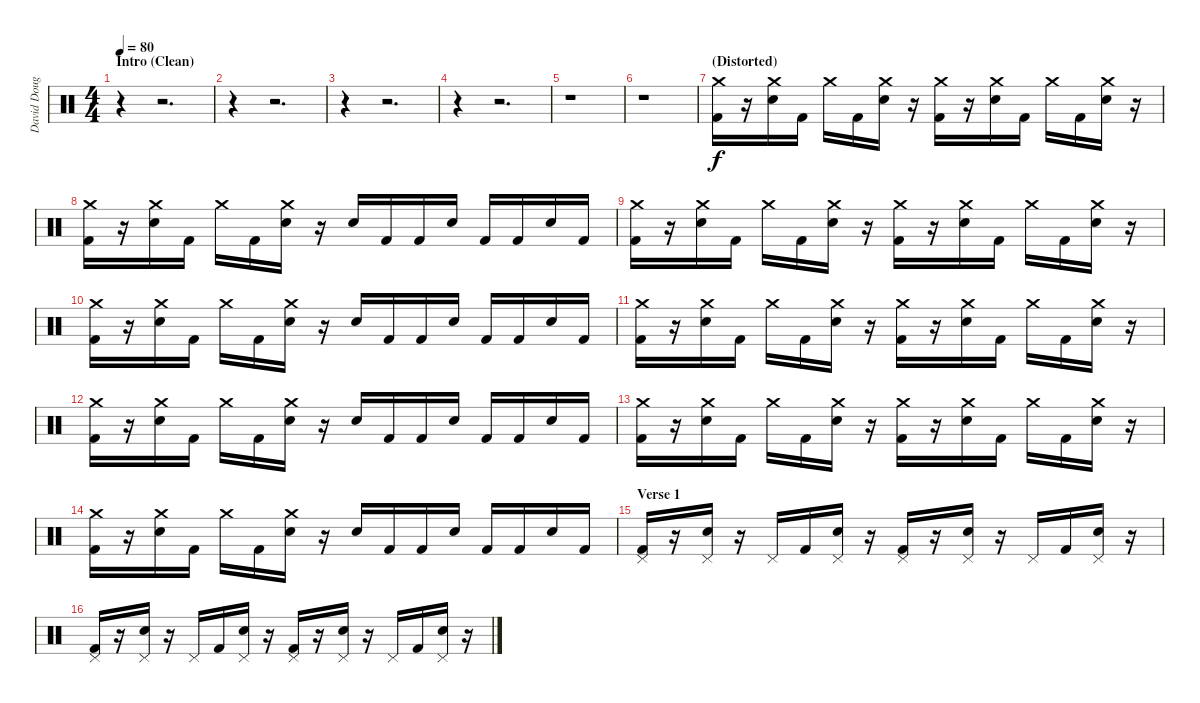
\track ("David Douglas" "David Doug") {instrument percussion}
\staff {score}
\articulation defaults
\ts (4 4)
\section ("" "Intro (Clean)")
\tempo 80
\clef neutral
\ks c
r.4{dy f} r.2{d} |
r.4 r.2{d} |
r.4 r.2{d} |
r.4 r.2{d} |
r.1 |
r.1 |
\section ("" "(Distorted)")
("Crash medium (hit)" "Kick (hit) 2").16 r.16 ("Crash medium (hit)" "Electric Snare (hit)").16 "Kick (hit) 2".16 "Crash medium (hit)".16 "Kick (hit) 2".16 ("Crash medium (hit)" "Electric Snare (hit)").16 r.16 ("Crash medium (hit)" "Kick (hit) 2").16 r.16 ("Crash medium (hit)" "Electric Snare (hit)").16 "Kick (hit) 2".16 "Crash medium (hit)".16 "Kick (hit) 2".16 ("Crash medium (hit)" "Electric Snare (hit)").16 r.16 |
("Crash medium (hit)" "Kick (hit) 2").16 r.16 ("Crash medium (hit)" "Electric Snare (hit)").16 "Kick (hit) 2".16 "Crash medium (hit)".16 "Kick (hit) 2".16 ("Crash medium (hit)" "Electric Snare (hit)").16 r.16 "Electric Snare (hit)".16 "Kick (hit) 2".16 "Kick (hit) 2".16 "Electric Snare (hit)".16 "Kick (hit) 2".16 "Kick (hit) 2".16 "Electric Snare (hit)".16 "Kick (hit) 2".16 |
("Crash medium (hit)" "Kick (hit) 2").16 r.16 ("Crash medium (hit)" "Electric Snare (hit)").16 "Kick (hit) 2".16 "Crash medium (hit)".16 "Kick (hit) 2".16 ("Crash medium (hit)" "Electric Snare (hit)").16 r.16 ("Crash medium (hit)" "Kick (hit) 2").16 r.16 ("Crash medium (hit)" "Electric Snare (hit)").16 "Kick (hit) 2".16 "Crash medium (hit)".16 "Kick (hit) 2".16 ("Crash medium (hit)" "Electric Snare (hit)").16 r.16 |
("Crash medium (hit)" "Kick (hit) 2").16 r.16 ("Crash medium (hit)" "Electric Snare (hit)").16 "Kick (hit) 2".16 "Crash medium (hit)".16 "Kick (hit) 2".16 ("Crash medium (hit)" "Electric Snare (hit)").16 r.16 "Electric Snare (hit)".16 "Kick (hit) 2".16 "Kick (hit) 2".16 "Electric Snare (hit)".16 "Kick (hit) 2".16 "Kick (hit) 2".16 "Electric Snare (hit)".16 "Kick (hit) 2".16 |
("Crash medium (hit)" "Kick (hit) 2").16 r.16 ("Crash medium (hit)" "Electric Snare (hit)").16 "Kick (hit) 2".16 "Crash medium (hit)".16 "Kick (hit) 2".16 ("Crash medium (hit)" "Electric Snare (hit)").16 r.16 ("Crash medium (hit)" "Kick (hit) 2").16 r.16 ("Crash medium (hit)" "Electric Snare (hit)").16 "Kick (hit) 2".16 "Crash medium (hit)".16 "Kick (hit) 2".16 ("Crash medium (hit)" "Electric Snare (hit)").16 r.16 |
("Crash medium (hit)" "Kick (hit) 2").16 r.16 ("Crash medium (hit)" "Electric Snare (hit)").16 "Kick (hit) 2".16 "Crash medium (hit)".16 "Kick (hit) 2".16 ("Crash medium (hit)" "Electric Snare (hit)").16 r.16 "Electric Snare (hit)".16 "Kick (hit) 2".16 "Kick (hit) 2".16 "Electric Snare (hit)".16 "Kick (hit) 2".16 "Kick (hit) 2".16 "Electric Snare (hit)".16 "Kick (hit) 2".16 |
("Crash medium (hit)" "Kick (hit) 2").16 r.16 ("Crash medium (hit)" "Electric Snare (hit)").16 "Kick (hit) 2".16 "Crash medium (hit)".16 "Kick (hit) 2".16 ("Crash medium (hit)" "Electric Snare (hit)").16 r.16 ("Crash medium (hit)" "Kick (hit) 2").16 r.16 ("Crash medium (hit)" "Electric Snare (hit)").16 "Kick (hit) 2".16 "Crash medium (hit)".16 "Kick (hit) 2".16 ("Crash medium (hit)" "Electric Snare (hit)").16 r.16 |
("Crash medium (hit)" "Kick (hit) 2").16 r.16 ("Crash medium (hit)" "Electric Snare (hit)").16 "Kick (hit) 2".16 "Crash medium (hit)".16 "Kick (hit) 2".16 ("Crash medium (hit)" "Electric Snare (hit)").16 r.16 "Electric Snare (hit)".16 "Kick (hit) 2".16 "Kick (hit) 2".16 "Electric Snare (hit)".16 "Kick (hit) 2".16 "Kick (hit) 2".16 "Electric Snare (hit)".16 "Kick (hit) 2".16 |
\section ("" "Verse 1")
("Pedal Hi-Hat (hit)" "Kick (hit) 2").16 r.16 ("Pedal Hi-Hat (hit)" "Electric Snare (hit)").16 r.16 "Pedal Hi-Hat (hit)".16 "Kick (hit) 2".16 ("Pedal Hi-Hat (hit)" "Electric Snare (hit)").16 r.16 ("Pedal Hi-Hat (hit)" "Kick (hit) 2").16 r.16 ("Pedal Hi-Hat (hit)" "Electric Snare (hit)").16 r.16 "Pedal Hi-Hat (hit)".16 "Kick (hit) 2".16 ("Pedal Hi-Hat (hit)" "Electric Snare (hit)").16 r.16 |
("Pedal Hi-Hat (hit)" "Kick (hit) 2").16 r.16 ("Pedal Hi-Hat (hit)" "Electric Snare (hit)").16 r.16 "Pedal Hi-Hat (hit)".16 "Kick (hit) 2".16 ("Pedal Hi-Hat (hit)" "Electric Snare (hit)").16 r.16 ("Pedal Hi-Hat (hit)" "Kick (hit) 2").16 r.16 ("Pedal Hi-Hat (hit)" "Electric Snare (hit)").16 r.16 "Pedal Hi-Hat (hit)".16 "Kick (hit) 2".16 ("Pedal Hi-Hat (hit)" "Electric Snare (hit)").16 r.16
